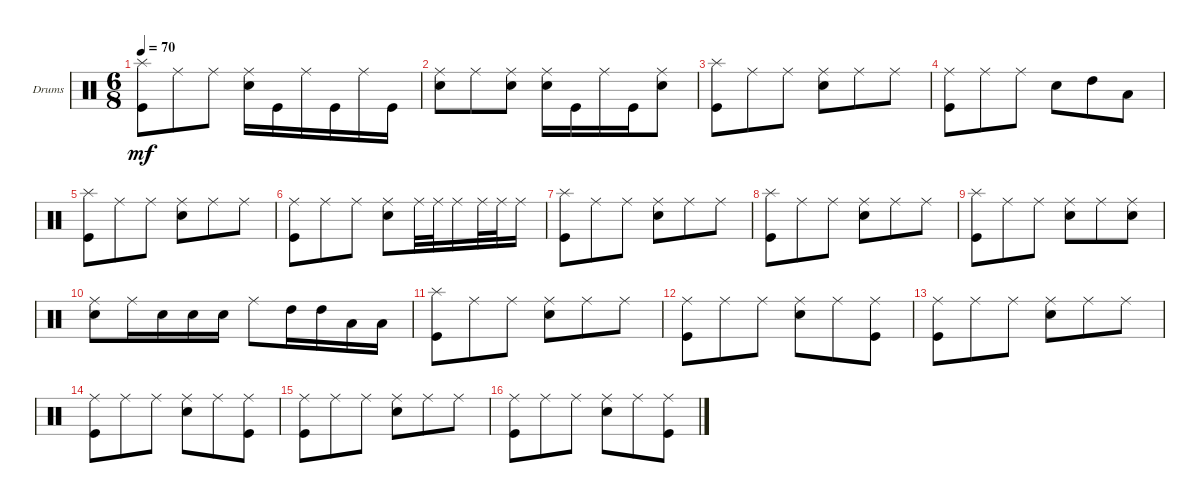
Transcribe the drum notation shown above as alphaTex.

\defaultSystemsLayout 4
\bracketExtendMode groupsimilarinstruments
\firstSystemTrackNameOrientation horizontal
\otherSystemsTrackNameOrientation horizontal
\track ("Drumkit" "Drums") {instrument percussion}
\staff {score}
\articulation defaults
\ts (6 8)
\tempo 70
\clef neutral
\scale
0.333333
\ks c
("Splash (hit)" "Kick (hit)").8{dy mf} "Ride (middle)".8 "Ride (middle)".8 ("Ride (middle)" "Snare (hit) 2").16 "Kick (hit)".16 "Ride (middle)".16 "Kick (hit)".16 "Ride (middle)".16 "Kick (hit)".16 |
\scale
0.333333 ("Ride (middle)" "Snare (hit) 2").8 "Ride (middle)".8 ("Ride (middle)" "Snare (hit) 2").8 ("Snare (hit) 2" "Ride (middle)").16 "Kick (hit)".16 "Ride (middle)".16 "Kick (hit)".16 ("Ride (middle)" "Snare (hit) 2").8 |
\scale
0.333333 ("Kick (hit)" "Splash (hit)").8 "Ride (middle)".8 "Ride (middle)".8 ("Snare (hit) 2" "Ride (middle)").8 "Ride (middle)".8 "Ride (middle)".8 |
\scale
0.333333 ("Kick (hit)" "Ride (middle)").8 "Ride (middle)".8 "Ride (middle)".8 "Snare (hit) 2".8 "High Tom (hit)".8 "Low Tom (hit)".8 |
\scale
0.333333 ("Splash (hit)" "Kick (hit)").8 "Ride (middle)".8 "Ride (middle)".8 ("Ride (middle)" "Snare (hit) 2").8 "Ride (middle)".8 "Ride (middle)".8 |
\scale
0.333333 ("Ride (middle)" "Kick (hit)").8 "Ride (middle)".8 "Ride (middle)".8 ("Ride (middle)" "Snare (hit) 2").8 "Ride (middle)".32 "Ride (middle)".32 "Ride (middle)".16 "Ride (middle)".32 "Ride (middle)".32 "Ride (middle)".16 |
\scale
0.333333 ("Kick (hit)" "Splash (hit)").8 "Ride (middle)".8 "Ride (middle)".8 ("Snare (hit) 2" "Ride (middle)").8 "Ride (middle)".8 "Ride (middle)".8 |
\scale
0.333333 ("Kick (hit)" "Splash (hit)").8 "Ride (middle)".8 "Ride (middle)".8 ("Snare (hit) 2" "Ride (middle)").8 "Ride (middle)".8 "Ride (middle)".8 |
\scale
0.333333 ("Kick (hit)" "Splash (hit)").8 "Ride (middle)".8 "Ride (middle)".8 ("Snare (hit) 2" "Ride (middle)").8 "Ride (middle)".8 ("Ride (middle)" "Snare (hit) 2").8 |
\scale
0.333333 ("Snare (hit) 2" "Ride (middle)").8 "Ride (middle)".16 "Snare (hit) 2".16 "Snare (hit) 2".16 "Snare (hit) 2".16 "Ride (middle)".8 "High Tom (hit)".16 "High Tom (hit)".16 "Low Tom (hit)".16 "Low Tom (hit)".16 |
\scale
0.333333 ("Splash (hit)" "Kick (hit)").8 "Ride (middle)".8 "Ride (middle)".8 ("Ride (middle)" "Snare (hit) 2").8 "Ride (middle)".8 "Ride (middle)".8 |
\scale
0.333333 ("Ride (middle)" "Kick (hit)").8 "Ride (middle)".8 "Ride (middle)".8 ("Ride (middle)" "Snare (hit) 2").8 "Ride (middle)".8 ("Ride (middle)" "Kick (hit)").8 |
\scale
0.333333 ("Ride (middle)" "Kick (hit)").8 "Ride (middle)".8 "Ride (middle)".8 ("Ride (middle)" "Snare (hit) 2").8 "Ride (middle)".8 "Ride (middle)".8 |
\scale
0.333333 ("Ride (middle)" "Kick (hit)").8 "Ride (middle)".8 "Ride (middle)".8 ("Ride (middle)" "Snare (hit) 2").8 "Ride (middle)".8 ("Ride (middle)" "Kick (hit)").8 |
\scale
0.333333 ("Ride (middle)" "Kick (hit)").8 "Ride (middle)".8 "Ride (middle)".8 ("Ride (middle)" "Snare (hit) 2").8 "Ride (middle)".8 "Ride (middle)".8 |
\scale
0.333333 ("Ride (middle)" "Kick (hit)").8 "Ride (middle)".8 "Ride (middle)".8 ("Ride (middle)" "Snare (hit) 2").8 "Ride (middle)".8 ("Ride (middle)" "Kick (hit)").8
